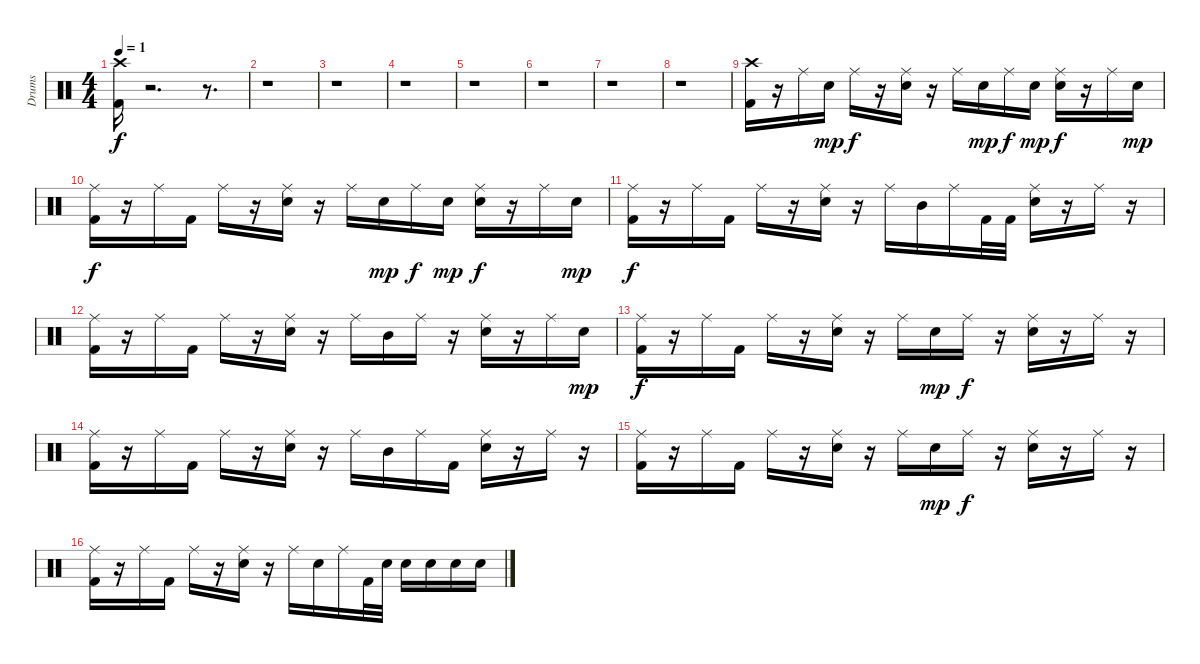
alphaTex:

\track ("Drums" "Drums") {instrument percussion}
\staff {score}
\articulation defaults
\ts (4 4)
\tempo 1
\clef neutral
\ks c
("Kick (hit) 2" "Crash high (hit)").16{dy f} r.2{d} r.8{d} |
r.1 |
r.1 |
r.1 |
r.1 |
r.1 |
r.1 |
r.1 |
("Kick (hit) 2" "Crash high (hit)").16 r.16 "Ride (middle)".16 "Snare (hit) 2".16{dy mp} "Ride (middle)".16{dy f} r.16 ("Snare (hit) 2" "Ride (middle)").16 r.16 "Ride (middle)".16 "Snare (hit) 2".16{dy mp} "Ride (middle)".16{dy f} "Snare (hit) 2".16{dy mp} ("Snare (hit) 2" "Ride (middle)").16{dy f} r.16 "Ride (middle)".16 "Snare (hit) 2".16{dy mp} |
("Kick (hit) 2" "Ride (middle)").16{dy f} r.16 "Ride (middle)".16 "Kick (hit) 2".16 "Ride (middle)".16 r.16 ("Snare (hit) 2" "Ride (middle)").16 r.16 "Ride (middle)".16 "Snare (hit) 2".16{dy mp} "Ride (middle)".16{dy f} "Snare (hit) 2".16{dy mp} ("Snare (hit) 2" "Ride (middle)").16{dy f} r.16 "Ride (middle)".16 "Snare (hit) 2".16{dy mp} |
("Kick (hit) 2" "Ride (middle)").16{dy f} r.16 "Ride (middle)".16 "Kick (hit) 2".16 "Ride (middle)".16 r.16 ("Snare (hit) 2" "Ride (middle)").16 r.16 "Ride (middle)".16 "Mid Tom (hit)".16 "Ride (middle)".16 "Kick (hit) 2".32 "Kick (hit) 2".32 ("Snare (hit) 2" "Ride (middle)").16 r.16 "Ride (middle)".16 r.16 |
("Kick (hit) 2" "Ride (middle)").16 r.16 "Ride (middle)".16 "Kick (hit) 2".16 "Ride (middle)".16 r.16 ("Snare (hit) 2" "Ride (middle)").16 r.16 "Ride (middle)".16 "Mid Tom (hit)".16 "Ride (middle)".16 r.16 ("Snare (hit) 2" "Ride (middle)").16 r.16 "Ride (middle)".16 "Snare (hit) 2".16{dy mp} |
("Kick (hit) 2" "Ride (middle)").16{dy f} r.16 "Ride (middle)".16 "Kick (hit) 2".16 "Ride (middle)".16 r.16 ("Snare (hit) 2" "Ride (middle)").16 r.16 "Ride (middle)".16 "Snare (hit) 2".16{dy mp} "Ride (middle)".16{dy f} r.16 ("Snare (hit) 2" "Ride (middle)").16 r.16 "Ride (middle)".16 r.16 |
("Kick (hit) 2" "Ride (middle)").16 r.16 "Ride (middle)".16 "Kick (hit) 2".16 "Ride (middle)".16 r.16 ("Snare (hit) 2" "Ride (middle)").16 r.16 "Ride (middle)".16 "Mid Tom (hit)".16 "Ride (middle)".16 "Kick (hit) 2".16 ("Snare (hit) 2" "Ride (middle)").16 r.16 "Ride (middle)".16 r.16 |
("Kick (hit) 2" "Ride (middle)").16 r.16 "Ride (middle)".16 "Kick (hit) 2".16 "Ride (middle)".16 r.16 ("Snare (hit) 2" "Ride (middle)").16 r.16 "Ride (middle)".16 "Snare (hit) 2".16{dy mp} "Ride (middle)".16{dy f} r.16 ("Snare (hit) 2" "Ride (middle)").16 r.16 "Ride (middle)".16 r.16 |
("Kick (hit) 2" "Ride (middle)").16 r.16 "Ride (middle)".16 "Kick (hit) 2".16 "Ride (middle)".16 r.16 ("Snare (hit) 2" "Ride (middle)").16 r.16 "Ride (middle)".16 "Snare (hit) 2".16 "Ride (middle)".16 "Kick (hit) 2".32 "Snare (hit) 2".32 "Snare (hit) 2".16 "Snare (hit) 2".16 "Snare (hit) 2".16 "Snare (hit) 2".16
